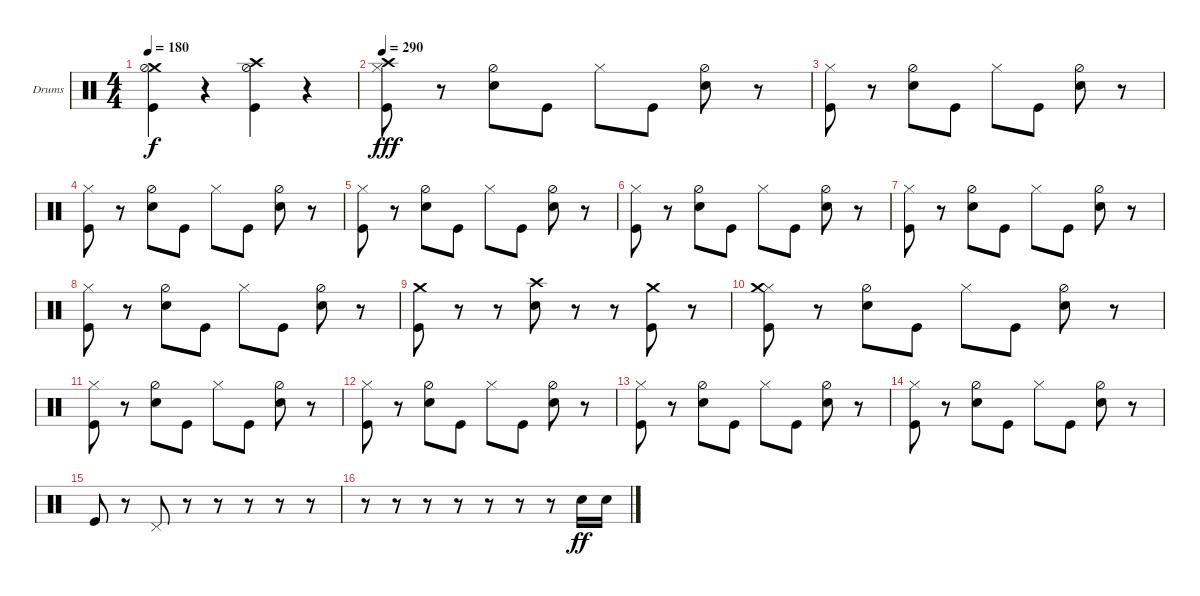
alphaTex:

\defaultSystemsLayout 4
\bracketExtendMode groupsimilarinstruments
\firstSystemTrackNameOrientation horizontal
\otherSystemsTrackNameOrientation horizontal
\track ("Drumkit" "Drums") {instrument percussion}
\staff {score}
\articulation defaults
\ts (4 4)
\tempo 180
\clef neutral
\ks c
("Crash medium (hit)" "Kick (hit)" "Hi-Hat (half)").4{dy f} r.4 ("Crash high (hit)" "Kick (hit)" "Hi-Hat (half)").4 r.4 |
\tempo 290
("Kick (hit)" "Crash high (hit)" "Hi-Hat (closed)").8{dy fff} r.8 ("Snare (hit) 2" "Hi-Hat (half)").8 "Kick (hit)".8 "Hi-Hat (closed)".8 "Kick (hit)".8 ("Snare (hit) 2" "Hi-Hat (half)").8 r.8 |
("Kick (hit)" "Hi-Hat (closed)").8 r.8 ("Snare (hit) 2" "Hi-Hat (half)").8 "Kick (hit)".8 "Hi-Hat (closed)".8 "Kick (hit)".8 ("Snare (hit) 2" "Hi-Hat (half)").8 r.8 |
("Kick (hit)" "Hi-Hat (closed)").8 r.8 ("Snare (hit) 2" "Hi-Hat (half)").8 "Kick (hit)".8 "Hi-Hat (closed)".8 "Kick (hit)".8 ("Snare (hit) 2" "Hi-Hat (half)").8 r.8 |
("Kick (hit)" "Hi-Hat (closed)").8 r.8 ("Snare (hit) 2" "Hi-Hat (half)").8 "Kick (hit)".8 "Hi-Hat (closed)".8 "Kick (hit)".8 ("Snare (hit) 2" "Hi-Hat (half)").8 r.8 |
("Kick (hit)" "Hi-Hat (closed)").8 r.8 ("Snare (hit) 2" "Hi-Hat (half)").8 "Kick (hit)".8 "Hi-Hat (closed)".8 "Kick (hit)".8 ("Snare (hit) 2" "Hi-Hat (half)").8 r.8 |
("Kick (hit)" "Hi-Hat (closed)").8 r.8 ("Snare (hit) 2" "Hi-Hat (half)").8 "Kick (hit)".8 "Hi-Hat (closed)".8 "Kick (hit)".8 ("Snare (hit) 2" "Hi-Hat (half)").8 r.8 |
("Kick (hit)" "Hi-Hat (closed)").8 r.8 ("Snare (hit) 2" "Hi-Hat (half)").8 "Kick (hit)".8 "Hi-Hat (closed)".8 "Kick (hit)".8 ("Snare (hit) 2" "Hi-Hat (half)").8 r.8 |
("Kick (hit)" "Crash medium (hit)").8 r.8 r.8 ("Snare (hit) 2" "Crash high (hit)").8 r.8 r.8 ("Kick (hit)" "Crash medium (hit)").8 r.8 |
("Kick (hit)" "Hi-Hat (closed)" "Crash medium (hit)").8 r.8 ("Snare (hit) 2" "Hi-Hat (half)").8 "Kick (hit)".8 "Hi-Hat (closed)".8 "Kick (hit)".8 ("Snare (hit) 2" "Hi-Hat (half)").8 r.8 |
("Kick (hit)" "Hi-Hat (closed)").8 r.8 ("Snare (hit) 2" "Hi-Hat (half)").8 "Kick (hit)".8 "Hi-Hat (closed)".8 "Kick (hit)".8 ("Snare (hit) 2" "Hi-Hat (half)").8 r.8 |
("Kick (hit)" "Hi-Hat (closed)").8 r.8 ("Snare (hit) 2" "Hi-Hat (half)").8 "Kick (hit)".8 "Hi-Hat (closed)".8 "Kick (hit)".8 ("Snare (hit) 2" "Hi-Hat (half)").8 r.8 |
("Kick (hit)" "Hi-Hat (closed)").8 r.8 ("Snare (hit) 2" "Hi-Hat (half)").8 "Kick (hit)".8 "Hi-Hat (closed)".8 "Kick (hit)".8 ("Snare (hit) 2" "Hi-Hat (half)").8 r.8 |
("Kick (hit)" "Hi-Hat (closed)").8 r.8 ("Snare (hit) 2" "Hi-Hat (half)").8 "Kick (hit)".8 "Hi-Hat (closed)".8 "Kick (hit)".8 ("Snare (hit) 2" "Hi-Hat (half)").8 r.8 |
"Kick (hit)".8 r.8 "Pedal Hi-Hat (hit)".8 r.8 r.8 r.8 r.8 r.8 |
r.8 r.8 r.8 r.8 r.8 r.8 r.8 "Snare (hit) 2".16{dy ff} "Snare (hit) 2".16
